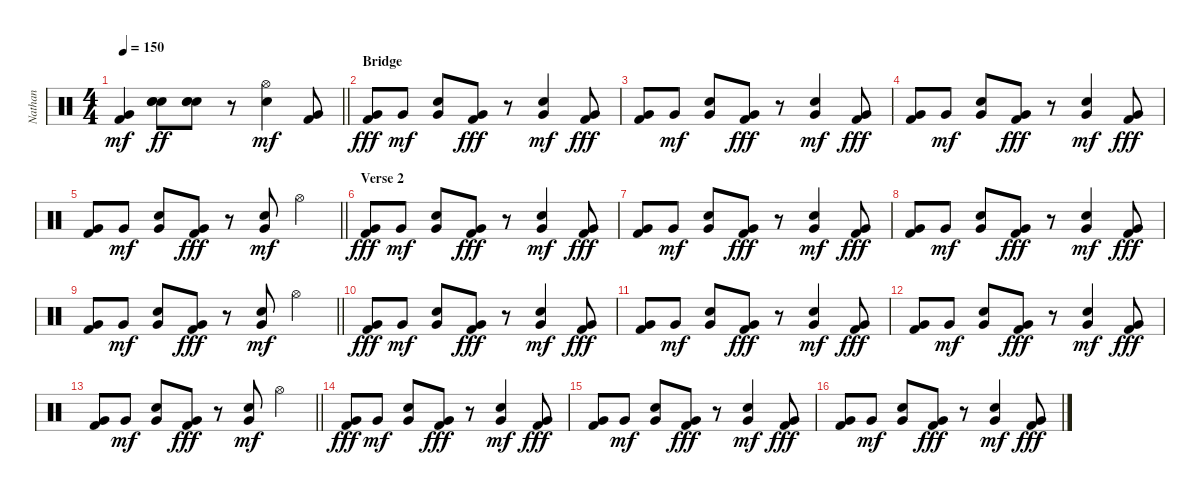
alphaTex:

\track ("Nathan" "Nathan") {instrument percussion}
\staff {score}
\articulation defaults
\ts (4 4)
\tempo 150
\clef neutral
\barLineRight lightlight
\ks c
("Very Low Tom (hit)" "Kick (hit) 2").4{dy mf} ("Electric Snare (hit)" "Hand Clap (hit)" "Hand Clap (hit)").8{dy ff} ("Electric Snare (hit)" "Hand Clap (hit)" "Hand Clap (hit)").8 r.8 ("Electric Snare (hit)" "Hi-Hat (open)").4{dy mf} ("Very Low Tom (hit)" "Kick (hit) 2").8 |
\section ("" "Bridge")
("Very Low Tom (hit)" "Kick (hit) 2").8{dy fff} "Very Low Tom (hit)".8{dy mf} ("Very Low Tom (hit)" "Electric Snare (hit)").8 ("Very Low Tom (hit)" "Kick (hit) 2").8{dy fff} r.8 ("Very Low Tom (hit)" "Electric Snare (hit)").4{dy mf} ("Very Low Tom (hit)" "Kick (hit) 2").8{dy fff} |
("Very Low Tom (hit)" "Kick (hit) 2").8 "Very Low Tom (hit)".8{dy mf} ("Very Low Tom (hit)" "Electric Snare (hit)").8 ("Very Low Tom (hit)" "Kick (hit) 2").8{dy fff} r.8 ("Very Low Tom (hit)" "Electric Snare (hit)").4{dy mf} ("Very Low Tom (hit)" "Kick (hit) 2").8{dy fff} |
("Very Low Tom (hit)" "Kick (hit) 2").8 "Very Low Tom (hit)".8{dy mf} ("Very Low Tom (hit)" "Electric Snare (hit)").8 ("Very Low Tom (hit)" "Kick (hit) 2").8{dy fff} r.8 ("Very Low Tom (hit)" "Electric Snare (hit)").4{dy mf} ("Very Low Tom (hit)" "Kick (hit) 2").8{dy fff} |
\barLineRight lightlight
("Very Low Tom (hit)" "Kick (hit) 2").8 "Very Low Tom (hit)".8{dy mf} ("Very Low Tom (hit)" "Electric Snare (hit)").8 ("Very Low Tom (hit)" "Kick (hit) 2").8{dy fff} r.8 ("Very Low Tom (hit)" "Electric Snare (hit)").8{dy mf} "Hi-Hat (open)".4 |
\section ("" "Verse 2")
("Very Low Tom (hit)" "Kick (hit) 2").8{dy fff} "Very Low Tom (hit)".8{dy mf} ("Very Low Tom (hit)" "Electric Snare (hit)").8 ("Very Low Tom (hit)" "Kick (hit) 2").8{dy fff} r.8 ("Very Low Tom (hit)" "Electric Snare (hit)").4{dy mf} ("Very Low Tom (hit)" "Kick (hit) 2").8{dy fff} |
("Very Low Tom (hit)" "Kick (hit) 2").8 "Very Low Tom (hit)".8{dy mf} ("Very Low Tom (hit)" "Electric Snare (hit)").8 ("Very Low Tom (hit)" "Kick (hit) 2").8{dy fff} r.8 ("Very Low Tom (hit)" "Electric Snare (hit)").4{dy mf} ("Very Low Tom (hit)" "Kick (hit) 2").8{dy fff} |
("Very Low Tom (hit)" "Kick (hit) 2").8 "Very Low Tom (hit)".8{dy mf} ("Very Low Tom (hit)" "Electric Snare (hit)").8 ("Very Low Tom (hit)" "Kick (hit) 2").8{dy fff} r.8 ("Very Low Tom (hit)" "Electric Snare (hit)").4{dy mf} ("Very Low Tom (hit)" "Kick (hit) 2").8{dy fff} |
\barLineRight lightlight
("Very Low Tom (hit)" "Kick (hit) 2").8 "Very Low Tom (hit)".8{dy mf} ("Very Low Tom (hit)" "Electric Snare (hit)").8 ("Very Low Tom (hit)" "Kick (hit) 2").8{dy fff} r.8 ("Very Low Tom (hit)" "Electric Snare (hit)").8{dy mf} "Hi-Hat (open)".4 |
("Very Low Tom (hit)" "Kick (hit) 2").8{dy fff} "Very Low Tom (hit)".8{dy mf} ("Very Low Tom (hit)" "Electric Snare (hit)").8 ("Very Low Tom (hit)" "Kick (hit) 2").8{dy fff} r.8 ("Very Low Tom (hit)" "Electric Snare (hit)").4{dy mf} ("Very Low Tom (hit)" "Kick (hit) 2").8{dy fff} |
("Very Low Tom (hit)" "Kick (hit) 2").8 "Very Low Tom (hit)".8{dy mf} ("Very Low Tom (hit)" "Electric Snare (hit)").8 ("Very Low Tom (hit)" "Kick (hit) 2").8{dy fff} r.8 ("Very Low Tom (hit)" "Electric Snare (hit)").4{dy mf} ("Very Low Tom (hit)" "Kick (hit) 2").8{dy fff} |
("Very Low Tom (hit)" "Kick (hit) 2").8 "Very Low Tom (hit)".8{dy mf} ("Very Low Tom (hit)" "Electric Snare (hit)").8 ("Very Low Tom (hit)" "Kick (hit) 2").8{dy fff} r.8 ("Very Low Tom (hit)" "Electric Snare (hit)").4{dy mf} ("Very Low Tom (hit)" "Kick (hit) 2").8{dy fff} |
\barLineRight lightlight
("Very Low Tom (hit)" "Kick (hit) 2").8 "Very Low Tom (hit)".8{dy mf} ("Very Low Tom (hit)" "Electric Snare (hit)").8 ("Very Low Tom (hit)" "Kick (hit) 2").8{dy fff} r.8 ("Very Low Tom (hit)" "Electric Snare (hit)").8{dy mf} "Hi-Hat (open)".4 |
("Very Low Tom (hit)" "Kick (hit) 2").8{dy fff} "Very Low Tom (hit)".8{dy mf} ("Very Low Tom (hit)" "Electric Snare (hit)").8 ("Very Low Tom (hit)" "Kick (hit) 2").8{dy fff} r.8 ("Very Low Tom (hit)" "Electric Snare (hit)").4{dy mf} ("Very Low Tom (hit)" "Kick (hit) 2").8{dy fff} |
("Very Low Tom (hit)" "Kick (hit) 2").8 "Very Low Tom (hit)".8{dy mf} ("Very Low Tom (hit)" "Electric Snare (hit)").8 ("Very Low Tom (hit)" "Kick (hit) 2").8{dy fff} r.8 ("Very Low Tom (hit)" "Electric Snare (hit)").4{dy mf} ("Very Low Tom (hit)" "Kick (hit) 2").8{dy fff} |
("Very Low Tom (hit)" "Kick (hit) 2").8 "Very Low Tom (hit)".8{dy mf} ("Very Low Tom (hit)" "Electric Snare (hit)").8 ("Very Low Tom (hit)" "Kick (hit) 2").8{dy fff} r.8 ("Very Low Tom (hit)" "Electric Snare (hit)").4{dy mf} ("Very Low Tom (hit)" "Kick (hit) 2").8{dy fff}
